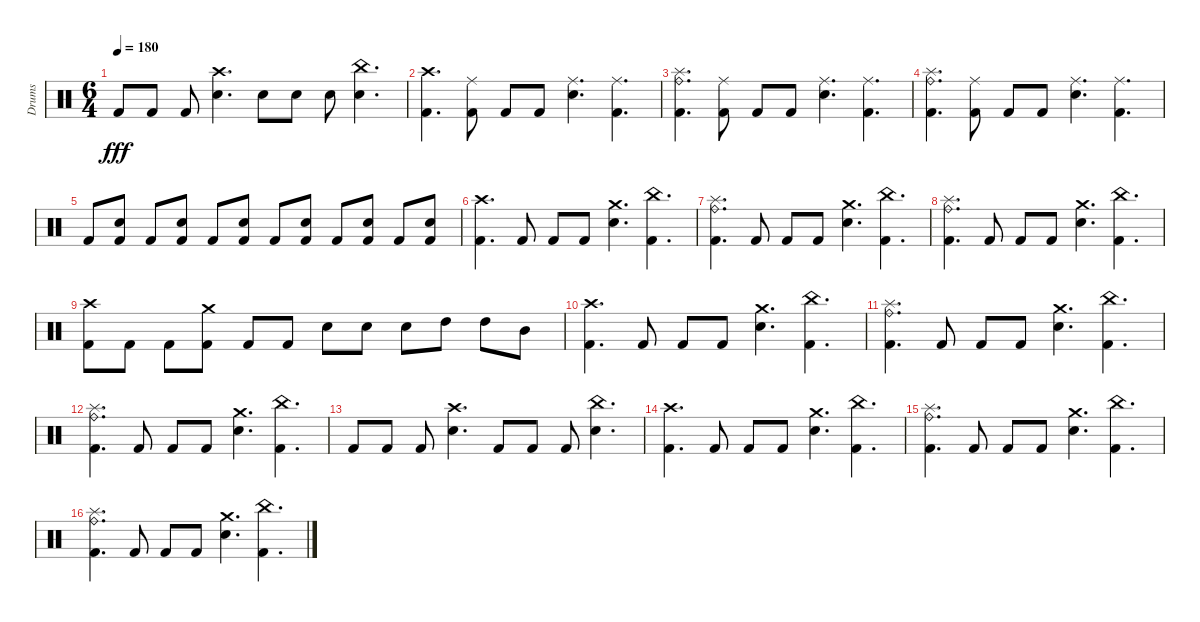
\track ("Drums" "Drums") {instrument percussion}
\staff {score}
\articulation defaults
\ts (6 4)
\tempo 180
\clef neutral
\ks c "Kick (hit) 2".8{dy fff} "Kick (hit) 2".8 "Kick (hit) 2".8
("Crash high (hit)" "Electric Snare (hit)").4{d} "Electric Snare (hit)".8 "Electric Snare (hit)".8 "Electric Snare (hit)".8 ("China (hit)" "Electric Snare (hit)").4{d} |
("Crash high (hit)" "Kick (hit) 2").4{d} ("Ride (middle)" "Kick (hit) 2").8 "Kick (hit) 2".8 "Kick (hit) 2".8 ("Ride (middle)" "Electric Snare (hit)").4{d} ("Ride (middle)" "Kick (hit) 2").4{d} |
("Ride (bell)" "Splash (hit)" "Kick (hit) 2").4{d} ("Ride (middle)" "Kick (hit) 2").8 "Kick (hit) 2".8 "Kick (hit) 2".8 ("Ride (middle)" "Electric Snare (hit)").4{d} ("Ride (middle)" "Kick (hit) 2").4{d} |
("Ride (bell)" "Splash (hit)" "Kick (hit) 2").4{d} ("Ride (middle)" "Kick (hit) 2").8 "Kick (hit) 2".8 "Kick (hit) 2".8 ("Ride (middle)" "Electric Snare (hit)").4{d} ("Ride (middle)" "Kick (hit) 2").4{d} |
"Kick (hit) 2".8 ("Electric Snare (hit)" "Kick (hit) 2").8 "Kick (hit) 2".8 ("Electric Snare (hit)" "Kick (hit) 2").8 "Kick (hit) 2".8 ("Electric Snare (hit)" "Kick (hit) 2").8 "Kick (hit) 2".8 ("Electric Snare (hit)" "Kick (hit) 2").8 "Kick (hit) 2".8 ("Electric Snare (hit)" "Kick (hit) 2").8 "Kick (hit) 2".8 ("Electric Snare (hit)" "Kick (hit) 2").8 |
("Crash high (hit)" "Kick (hit) 2").4{d} "Kick (hit) 2".8 "Kick (hit) 2".8 "Kick (hit) 2".8 ("Crash medium (hit)" "Electric Snare (hit)").4{d} ("China (hit)" "Kick (hit) 2").4{d} |
("Ride (bell)" "Splash (hit)" "Kick (hit) 2").4{d} "Kick (hit) 2".8 "Kick (hit) 2".8 "Kick (hit) 2".8 ("Crash medium (hit)" "Electric Snare (hit)").4{d} ("China (hit)" "Kick (hit) 2").4{d} |
("Ride (bell)" "Splash (hit)" "Kick (hit) 2").4{d} "Kick (hit) 2".8 "Kick (hit) 2".8 "Kick (hit) 2".8 ("Crash medium (hit)" "Electric Snare (hit)").4{d} ("China (hit)" "Kick (hit) 2").4{d} |
("Crash high (hit)" "Kick (hit) 2").8 "Kick (hit) 2".8 "Kick (hit) 2".8 ("Crash medium (hit)" "Kick (hit) 2").8 "Kick (hit) 2".8 "Kick (hit) 2".8 "Electric Snare (hit)".8 "Electric Snare (hit)".8 "Electric Snare (hit)".8 "High Tom (hit)".8 "High Tom (hit)".8 "Mid Tom (hit)".8 |
("Crash high (hit)" "Kick (hit) 2").4{d} "Kick (hit) 2".8 "Kick (hit) 2".8 "Kick (hit) 2".8 ("Crash medium (hit)" "Electric Snare (hit)").4{d} ("China (hit)" "Kick (hit) 2").4{d} |
("Ride (bell)" "Splash (hit)" "Kick (hit) 2").4{d} "Kick (hit) 2".8 "Kick (hit) 2".8 "Kick (hit) 2".8 ("Crash medium (hit)" "Electric Snare (hit)").4{d} ("China (hit)" "Kick (hit) 2").4{d} |
("Ride (bell)" "Splash (hit)" "Kick (hit) 2").4{d} "Kick (hit) 2".8 "Kick (hit) 2".8 "Kick (hit) 2".8 ("Crash medium (hit)" "Electric Snare (hit)").4{d} ("China (hit)" "Kick (hit) 2").4{d} |
"Kick (hit) 2".8 "Kick (hit) 2".8 "Kick (hit) 2".8 ("Crash high (hit)" "Electric Snare (hit)").4{d} "Kick (hit) 2".8 "Kick (hit) 2".8 "Kick (hit) 2".8 ("China (hit)" "Electric Snare (hit)").4{d} |
("Crash high (hit)" "Kick (hit) 2").4{d} "Kick (hit) 2".8 "Kick (hit) 2".8 "Kick (hit) 2".8 ("Crash medium (hit)" "Electric Snare (hit)").4{d} ("China (hit)" "Kick (hit) 2").4{d} |
("Ride (bell)" "Splash (hit)" "Kick (hit) 2").4{d} "Kick (hit) 2".8 "Kick (hit) 2".8 "Kick (hit) 2".8 ("Crash medium (hit)" "Electric Snare (hit)").4{d} ("China (hit)" "Kick (hit) 2").4{d} |
("Ride (bell)" "Splash (hit)" "Kick (hit) 2").4{d} "Kick (hit) 2".8 "Kick (hit) 2".8 "Kick (hit) 2".8 ("Crash medium (hit)" "Electric Snare (hit)").4{d} ("China (hit)" "Kick (hit) 2").4{d}
